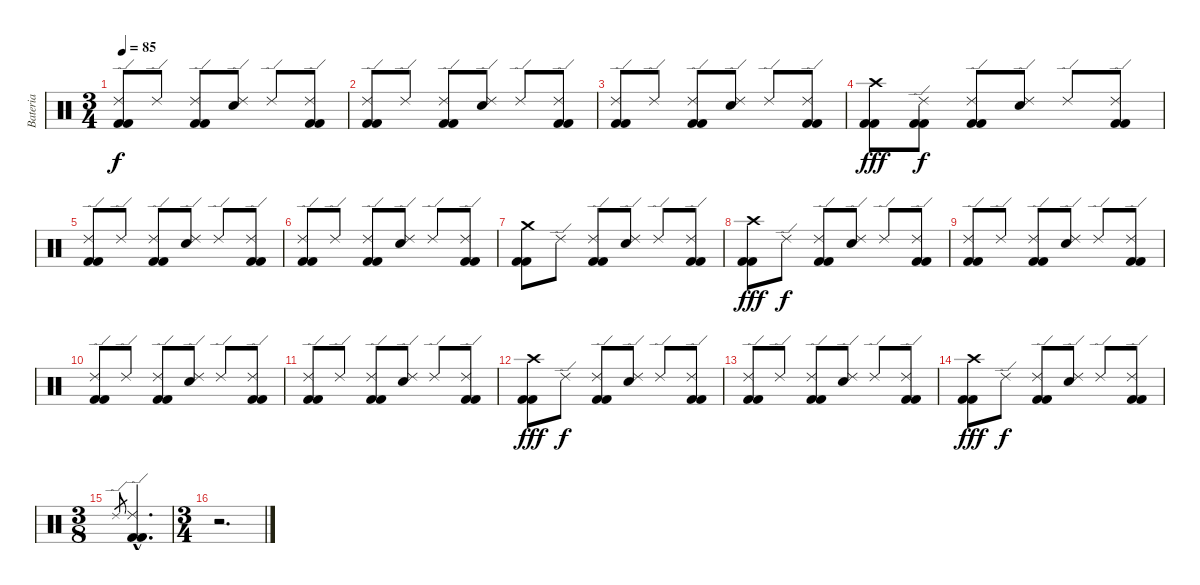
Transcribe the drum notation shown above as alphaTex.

\track ("Bateria" "Bateria") {instrument percussion}
\staff {score}
\articulation defaults
\ts (3 4)
\tempo 85
\clef neutral
\ks c
("Ride (edge) 2" "Kick (hit) 2" "Kick (hit) 2").8{dy f} "Ride (edge) 2".8 ("Ride (edge) 2" "Kick (hit) 2" "Kick (hit) 2").8 ("Ride (edge) 2" "Electric Snare (hit)").8 "Ride (edge) 2".8 ("Ride (edge) 2" "Kick (hit) 2" "Kick (hit) 2").8 |
("Ride (edge) 2" "Kick (hit) 2" "Kick (hit) 2").8 "Ride (edge) 2".8 ("Ride (edge) 2" "Kick (hit) 2" "Kick (hit) 2").8 ("Ride (edge) 2" "Electric Snare (hit)").8 "Ride (edge) 2".8 ("Ride (edge) 2" "Kick (hit) 2" "Kick (hit) 2").8 |
("Ride (edge) 2" "Kick (hit) 2" "Kick (hit) 2").8 "Ride (edge) 2".8 ("Ride (edge) 2" "Kick (hit) 2" "Kick (hit) 2").8 ("Ride (edge) 2" "Electric Snare (hit)").8 "Ride (edge) 2".8 ("Ride (edge) 2" "Kick (hit) 2" "Kick (hit) 2").8 |
("Crash high (hit)" "Kick (hit) 2" "Kick (hit) 2").8{dy fff} ("Ride (edge) 2" "Kick (hit) 2" "Kick (hit) 2").8{dy f} ("Ride (edge) 2" "Kick (hit) 2" "Kick (hit) 2").8 ("Ride (edge) 2" "Electric Snare (hit)").8 "Ride (edge) 2".8 ("Ride (edge) 2" "Kick (hit) 2" "Kick (hit) 2").8 |
("Ride (edge) 2" "Kick (hit) 2" "Kick (hit) 2").8 "Ride (edge) 2".8 ("Ride (edge) 2" "Kick (hit) 2" "Kick (hit) 2").8 ("Ride (edge) 2" "Electric Snare (hit)").8 "Ride (edge) 2".8 ("Ride (edge) 2" "Kick (hit) 2" "Kick (hit) 2").8 |
("Ride (edge) 2" "Kick (hit) 2" "Kick (hit) 2").8 "Ride (edge) 2".8 ("Ride (edge) 2" "Kick (hit) 2" "Kick (hit) 2").8 ("Ride (edge) 2" "Electric Snare (hit)").8 "Ride (edge) 2".8 ("Ride (edge) 2" "Kick (hit) 2" "Kick (hit) 2").8 |
("Crash medium (hit)" "Kick (hit) 2" "Kick (hit) 2").8 "Ride (edge) 2".8 ("Ride (edge) 2" "Kick (hit) 2" "Kick (hit) 2").8 ("Ride (edge) 2" "Electric Snare (hit)").8 "Ride (edge) 2".8 ("Ride (edge) 2" "Kick (hit) 2" "Kick (hit) 2").8 |
("Crash high (hit)" "Kick (hit) 2" "Kick (hit) 2").8{dy fff} "Ride (edge) 2".8{dy f} ("Ride (edge) 2" "Kick (hit) 2" "Kick (hit) 2").8 ("Ride (edge) 2" "Electric Snare (hit)").8 "Ride (edge) 2".8 ("Ride (edge) 2" "Kick (hit) 2" "Kick (hit) 2").8 |
("Ride (edge) 2" "Kick (hit) 2" "Kick (hit) 2").8 "Ride (edge) 2".8 ("Ride (edge) 2" "Kick (hit) 2" "Kick (hit) 2").8 ("Ride (edge) 2" "Electric Snare (hit)").8 "Ride (edge) 2".8 ("Ride (edge) 2" "Kick (hit) 2" "Kick (hit) 2").8 |
("Ride (edge) 2" "Kick (hit) 2" "Kick (hit) 2").8 "Ride (edge) 2".8 ("Ride (edge) 2" "Kick (hit) 2" "Kick (hit) 2").8 ("Ride (edge) 2" "Electric Snare (hit)").8 "Ride (edge) 2".8 ("Ride (edge) 2" "Kick (hit) 2" "Kick (hit) 2").8 |
("Ride (edge) 2" "Kick (hit) 2" "Kick (hit) 2").8 "Ride (edge) 2".8 ("Ride (edge) 2" "Kick (hit) 2" "Kick (hit) 2").8 ("Ride (edge) 2" "Electric Snare (hit)").8 "Ride (edge) 2".8 ("Ride (edge) 2" "Kick (hit) 2" "Kick (hit) 2").8 |
("Crash high (hit)" "Kick (hit) 2" "Kick (hit) 2").8{dy fff} "Ride (edge) 2".8{dy f} ("Ride (edge) 2" "Kick (hit) 2" "Kick (hit) 2").8 ("Ride (edge) 2" "Electric Snare (hit)").8 "Ride (edge) 2".8 ("Ride (edge) 2" "Kick (hit) 2" "Kick (hit) 2").8 |
("Ride (edge) 2" "Kick (hit) 2" "Kick (hit) 2").8 "Ride (edge) 2".8 ("Ride (edge) 2" "Kick (hit) 2" "Kick (hit) 2").8 ("Ride (edge) 2" "Electric Snare (hit)").8 "Ride (edge) 2".8 ("Ride (edge) 2" "Kick (hit) 2" "Kick (hit) 2").8 |
("Crash high (hit)" "Kick (hit) 2" "Kick (hit) 2").8{dy fff} "Ride (edge) 2".8{dy f} ("Ride (edge) 2" "Kick (hit) 2" "Kick (hit) 2").8 ("Ride (edge) 2" "Electric Snare (hit)").8 "Ride (edge) 2".8 ("Ride (edge) 2" "Kick (hit) 2" "Kick (hit) 2").8 |
\ts (3 8)
"Ride (edge) 2".8{gr} ("Ride (edge) 2"{hac} "Kick (hit) 2"{hac} "Kick (hit) 2"{hac}).4{d} |
\ts (3 4)
r.2{d}
